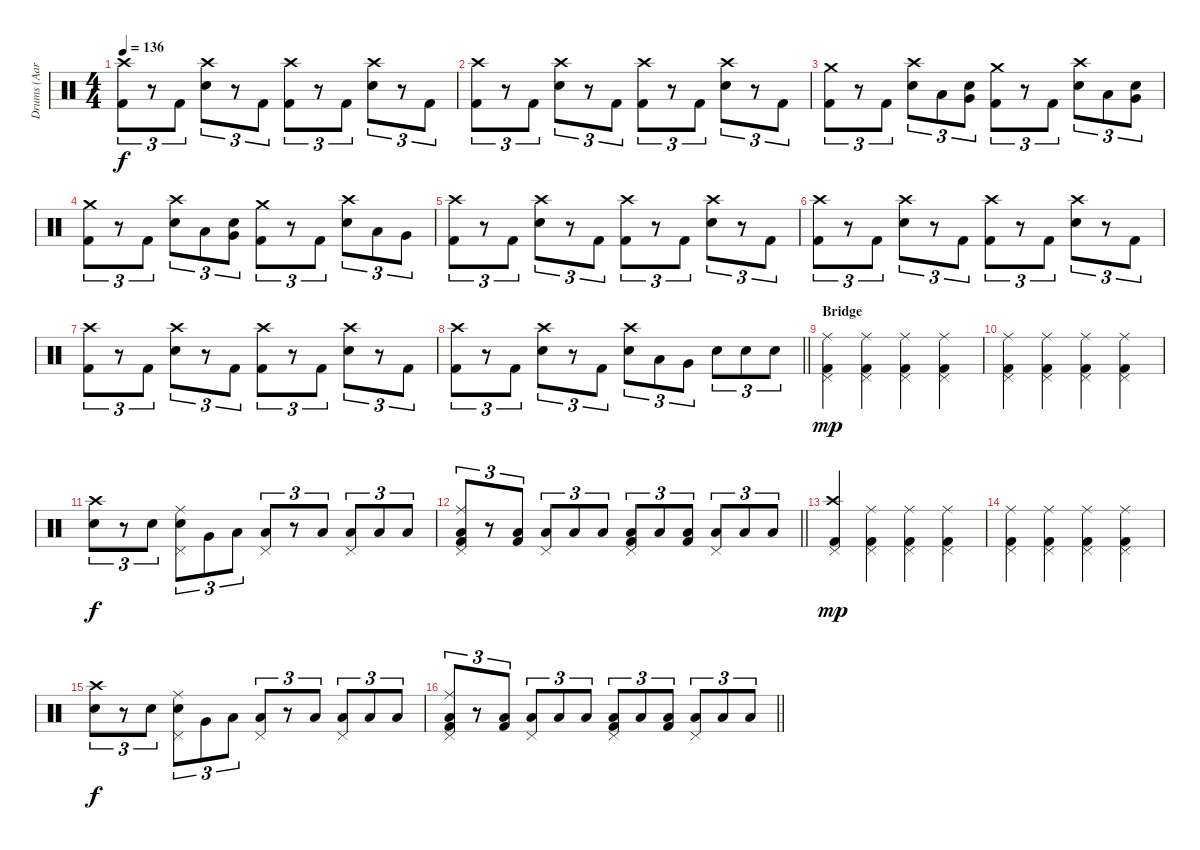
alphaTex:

\track ("Drums (Aaron Solowoniuk)" "Drums (Aar") {instrument percussion}
\staff {score}
\articulation defaults
\ts (4 4)
\tempo 136
\clef neutral
\ks c
("Kick (hit) 2" "Crash high (hit)").8{tu (3 2) dy f} r.8{tu (3 2)} "Kick (hit) 2".8{tu (3 2)} ("Electric Snare (hit)" "Crash high (hit)").8{tu (3 2)} r.8{tu (3 2)} "Kick (hit) 2".8{tu (3 2)} ("Kick (hit) 2" "Crash high (hit)").8{tu (3 2)} r.8{tu (3 2)} "Kick (hit) 2".8{tu (3 2)} ("Electric Snare (hit)" "Crash high (hit)").8{tu (3 2)} r.8{tu (3 2)} "Kick (hit) 2".8{tu (3 2)} |
("Kick (hit) 2" "Crash high (hit)").8{tu (3 2)} r.8{tu (3 2)} "Kick (hit) 2".8{tu (3 2)} ("Electric Snare (hit)" "Crash high (hit)").8{tu (3 2)} r.8{tu (3 2)} "Kick (hit) 2".8{tu (3 2)} ("Kick (hit) 2" "Crash high (hit)").8{tu (3 2)} r.8{tu (3 2)} "Kick (hit) 2".8{tu (3 2)} ("Electric Snare (hit)" "Crash high (hit)").8{tu (3 2)} r.8{tu (3 2)} "Kick (hit) 2".8{tu (3 2)} |
("Crash medium (hit)" "Kick (hit) 2").8{tu (3 2)} r.8{tu (3 2)} "Kick (hit) 2".8{tu (3 2)} ("Crash high (hit)" "Electric Snare (hit)").8{tu (3 2)} "Low Tom (hit)".8{tu (3 2)} ("Electric Snare (hit)" "Very Low Tom (hit)").8{tu (3 2)} ("Crash medium (hit)" "Kick (hit) 2").8{tu (3 2)} r.8{tu (3 2)} "Kick (hit) 2".8{tu (3 2)} ("Crash high (hit)" "Electric Snare (hit)").8{tu (3 2)} "Low Tom (hit)".8{tu (3 2)} ("Electric Snare (hit)" "Very Low Tom (hit)").8{tu (3 2)} |
("Crash medium (hit)" "Kick (hit) 2").8{tu (3 2)} r.8{tu (3 2)} "Kick (hit) 2".8{tu (3 2)} ("Crash high (hit)" "Electric Snare (hit)").8{tu (3 2)} "Low Tom (hit)".8{tu (3 2)} ("Electric Snare (hit)" "Very Low Tom (hit)").8{tu (3 2)} ("Crash medium (hit)" "Kick (hit) 2").8{tu (3 2)} r.8{tu (3 2)} "Kick (hit) 2".8{tu (3 2)} ("Crash high (hit)" "Electric Snare (hit)").8{tu (3 2)} "Low Tom (hit)".8{tu (3 2)} "Very Low Tom (hit)".8{tu (3 2)} |
("Crash high (hit)" "Kick (hit) 2").8{tu (3 2)} r.8{tu (3 2)} "Kick (hit) 2".8{tu (3 2)} ("Crash high (hit)" "Electric Snare (hit)").8{tu (3 2)} r.8{tu (3 2)} "Kick (hit) 2".8{tu (3 2)} ("Crash high (hit)" "Kick (hit) 2").8{tu (3 2)} r.8{tu (3 2)} "Kick (hit) 2".8{tu (3 2)} ("Crash high (hit)" "Electric Snare (hit)").8{tu (3 2)} r.8{tu (3 2)} "Kick (hit) 2".8{tu (3 2)} |
("Crash high (hit)" "Kick (hit) 2").8{tu (3 2)} r.8{tu (3 2)} "Kick (hit) 2".8{tu (3 2)} ("Crash high (hit)" "Electric Snare (hit)").8{tu (3 2)} r.8{tu (3 2)} "Kick (hit) 2".8{tu (3 2)} ("Crash high (hit)" "Kick (hit) 2").8{tu (3 2)} r.8{tu (3 2)} "Kick (hit) 2".8{tu (3 2)} ("Crash high (hit)" "Electric Snare (hit)").8{tu (3 2)} r.8{tu (3 2)} "Kick (hit) 2".8{tu (3 2)} |
("Crash high (hit)" "Kick (hit) 2").8{tu (3 2)} r.8{tu (3 2)} "Kick (hit) 2".8{tu (3 2)} ("Crash high (hit)" "Electric Snare (hit)").8{tu (3 2)} r.8{tu (3 2)} "Kick (hit) 2".8{tu (3 2)} ("Crash high (hit)" "Kick (hit) 2").8{tu (3 2)} r.8{tu (3 2)} "Kick (hit) 2".8{tu (3 2)} ("Crash high (hit)" "Electric Snare (hit)").8{tu (3 2)} r.8{tu (3 2)} "Kick (hit) 2".8{tu (3 2)} |
\barLineRight lightlight
("Kick (hit) 2" "Crash high (hit)").8{tu (3 2)} r.8{tu (3 2)} "Kick (hit) 2".8{tu (3 2)} ("Electric Snare (hit)" "Crash high (hit)").8{tu (3 2)} r.8{tu (3 2)} "Kick (hit) 2".8{tu (3 2)} ("Electric Snare (hit)" "Crash high (hit)").8{tu (3 2)} "Low Tom (hit)".8{tu (3 2)} "Very Low Tom (hit)".8{tu (3 2)} "Electric Snare (hit)".8{tu (3 2)} "Electric Snare (hit)".8{tu (3 2)} "Electric Snare (hit)".8{tu (3 2)} |
\section ("" "Bridge")
("Pedal Hi-Hat (hit)" "Ride (middle)" "Kick (hit) 2").4{dy mp} ("Pedal Hi-Hat (hit)" "Ride (middle)" "Kick (hit) 2").4 ("Pedal Hi-Hat (hit)" "Ride (middle)" "Kick (hit) 2").4 ("Pedal Hi-Hat (hit)" "Ride (middle)" "Kick (hit) 2").4 |
("Pedal Hi-Hat (hit)" "Ride (middle)" "Kick (hit) 2").4 ("Pedal Hi-Hat (hit)" "Ride (middle)" "Kick (hit) 2").4 ("Pedal Hi-Hat (hit)" "Ride (middle)" "Kick (hit) 2").4 ("Pedal Hi-Hat (hit)" "Ride (middle)" "Kick (hit) 2").4 |
("Crash high (hit)" "Electric Snare (hit)").8{tu (3 2) dy f} r.8{tu (3 2)} "Electric Snare (hit)".8{tu (3 2)} ("Ride (middle)" "Pedal Hi-Hat (hit)" "Electric Snare (hit)").8{tu (3 2)} "Very Low Tom (hit)".8{tu (3 2)} "Low Floor Tom (hit)".8{tu (3 2)} ("Pedal Hi-Hat (hit)" "Low Floor Tom (hit)").8{tu (3 2)} r.8{tu (3 2)} "Low Floor Tom (hit)".8{tu (3 2)} ("Pedal Hi-Hat (hit)" "Low Floor Tom (hit)").8{tu (3 2)} "Low Floor Tom (hit)".8{tu (3 2)} "Low Floor Tom (hit)".8{tu (3 2)} |
\barLineRight lightlight
("Ride (middle)" "Pedal Hi-Hat (hit)" "Low Floor Tom (hit)" "Kick (hit) 2").8{tu (3 2)} r.8{tu (3 2)} ("Low Floor Tom (hit)" "Kick (hit) 2").8{tu (3 2)} ("Pedal Hi-Hat (hit)" "Low Floor Tom (hit)").8{tu (3 2)} "Low Floor Tom (hit)".8{tu (3 2)} "Low Floor Tom (hit)".8{tu (3 2)} ("Pedal Hi-Hat (hit)" "Low Floor Tom (hit)" "Kick (hit) 2").8{tu (3 2)} "Low Floor Tom (hit)".8{tu (3 2)} ("Low Floor Tom (hit)" "Kick (hit) 2").8{tu (3 2)} ("Pedal Hi-Hat (hit)" "Low Floor Tom (hit)").8{tu (3 2)} "Low Floor Tom (hit)".8{tu (3 2)} "Low Floor Tom (hit)".8{tu (3 2)} |
("Pedal Hi-Hat (hit)" "Crash high (hit)" "Kick (hit) 2").4{dy mp} ("Pedal Hi-Hat (hit)" "Ride (middle)" "Kick (hit) 2").4 ("Pedal Hi-Hat (hit)" "Ride (middle)" "Kick (hit) 2").4 ("Pedal Hi-Hat (hit)" "Ride (middle)" "Kick (hit) 2").4 |
("Pedal Hi-Hat (hit)" "Ride (middle)" "Kick (hit) 2").4 ("Pedal Hi-Hat (hit)" "Ride (middle)" "Kick (hit) 2").4 ("Pedal Hi-Hat (hit)" "Ride (middle)" "Kick (hit) 2").4 ("Pedal Hi-Hat (hit)" "Ride (middle)" "Kick (hit) 2").4 |
("Crash high (hit)" "Electric Snare (hit)").8{tu (3 2) dy f} r.8{tu (3 2)} "Electric Snare (hit)".8{tu (3 2)} ("Ride (middle)" "Pedal Hi-Hat (hit)" "Electric Snare (hit)").8{tu (3 2)} "Very Low Tom (hit)".8{tu (3 2)} "Low Floor Tom (hit)".8{tu (3 2)} ("Pedal Hi-Hat (hit)" "Low Floor Tom (hit)").8{tu (3 2)} r.8{tu (3 2)} "Low Floor Tom (hit)".8{tu (3 2)} ("Pedal Hi-Hat (hit)" "Low Floor Tom (hit)").8{tu (3 2)} "Low Floor Tom (hit)".8{tu (3 2)} "Low Floor Tom (hit)".8{tu (3 2)} |
\barLineRight lightlight
("Ride (middle)" "Pedal Hi-Hat (hit)" "Low Floor Tom (hit)" "Kick (hit) 2").8{tu (3 2)} r.8{tu (3 2)} ("Low Floor Tom (hit)" "Kick (hit) 2").8{tu (3 2)} ("Pedal Hi-Hat (hit)" "Low Floor Tom (hit)").8{tu (3 2)} "Low Floor Tom (hit)".8{tu (3 2)} "Low Floor Tom (hit)".8{tu (3 2)} ("Pedal Hi-Hat (hit)" "Low Floor Tom (hit)" "Kick (hit) 2").8{tu (3 2)} "Low Floor Tom (hit)".8{tu (3 2)} ("Low Floor Tom (hit)" "Kick (hit) 2").8{tu (3 2)} ("Pedal Hi-Hat (hit)" "Low Floor Tom (hit)").8{tu (3 2)} "Low Floor Tom (hit)".8{tu (3 2)} "Low Floor Tom (hit)".8{tu (3 2)}
